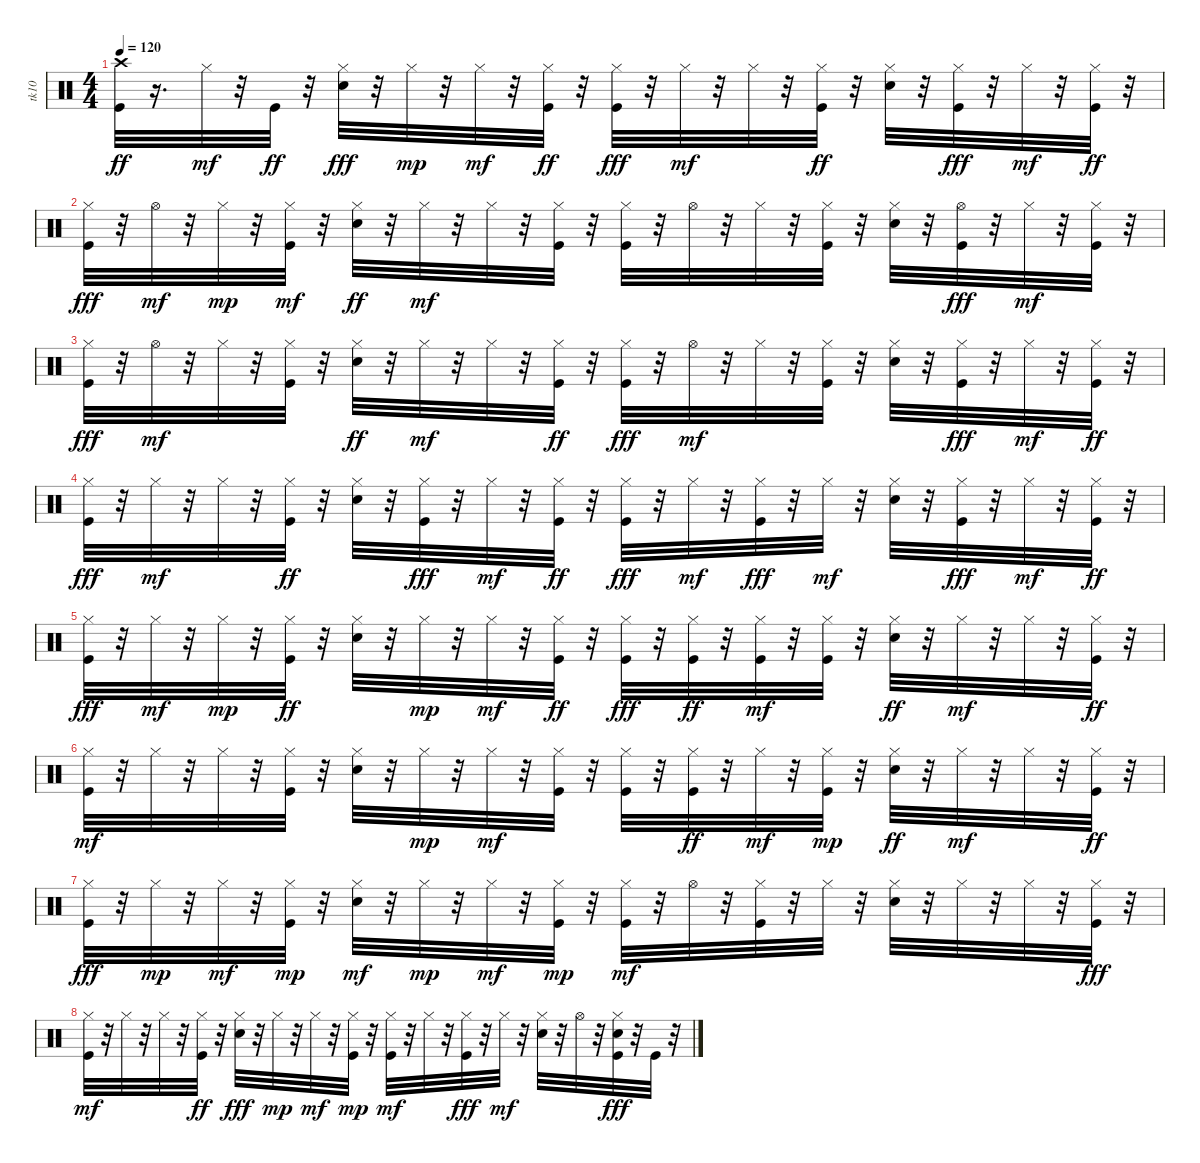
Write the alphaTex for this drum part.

\track ("tk10" "tk10") {instrument percussion}
\staff {score}
\articulation defaults
\ts (4 4)
\tempo 120
\clef neutral
\ks c
("Crash high (hit)" "Kick (hit)").32{dy ff} r.16{d} "Hi-Hat (closed)".32{dy mf} r.32 "Kick (hit)".32{dy ff} r.32 ("Hi-Hat (closed)" "Snare (hit) 2").32{dy fff} r.32 "Hi-Hat (closed)".32{dy mp} r.32 "Hi-Hat (closed)".32{dy mf} r.32 ("Hi-Hat (closed)" "Kick (hit)").32{dy ff} r.32 ("Hi-Hat (closed)" "Kick (hit)").32{dy fff} r.32 "Hi-Hat (closed)".32{dy mf} r.32 "Hi-Hat (closed)".32 r.32 ("Hi-Hat (closed)" "Kick (hit)").32{dy ff} r.32 ("Hi-Hat (closed)" "Snare (hit) 2").32 r.32 ("Hi-Hat (closed)" "Kick (hit)").32{dy fff} r.32 "Hi-Hat (closed)".32{dy mf} r.32 ("Hi-Hat (closed)" "Kick (hit)").32{dy ff} r.32 |
("Hi-Hat (closed)" "Kick (hit)").32{dy fff} r.32 "Hi-Hat (open)".32{dy mf} r.32 "Hi-Hat (closed)".32{dy mp} r.32 ("Kick (hit)" "Hi-Hat (closed)").32{dy mf} r.32 ("Hi-Hat (closed)" "Snare (hit) 2").32{dy ff} r.32 "Hi-Hat (closed)".32{dy mf} r.32 "Hi-Hat (closed)".32 r.32 ("Kick (hit)" "Hi-Hat (closed)").32 r.32 ("Kick (hit)" "Hi-Hat (closed)").32 r.32 "Hi-Hat (open)".32 r.32 "Hi-Hat (closed)".32 r.32 ("Kick (hit)" "Hi-Hat (closed)").32 r.32 ("Snare (hit) 2" "Hi-Hat (closed)").32 r.32 ("Hi-Hat (open)" "Kick (hit)").32{dy fff} r.32 "Hi-Hat (closed)".32{dy mf} r.32 ("Kick (hit)" "Hi-Hat (closed)").32 r.32 |
("Hi-Hat (closed)" "Kick (hit)").32{dy fff} r.32 "Hi-Hat (open)".32{dy mf} r.32 "Hi-Hat (closed)".32 r.32 ("Kick (hit)" "Hi-Hat (closed)").32 r.32 ("Hi-Hat (closed)" "Snare (hit) 2").32{dy ff} r.32 "Hi-Hat (closed)".32{dy mf} r.32 "Hi-Hat (closed)".32 r.32 ("Hi-Hat (closed)" "Kick (hit)").32{dy ff} r.32 ("Hi-Hat (closed)" "Kick (hit)").32{dy fff} r.32 "Hi-Hat (open)".32{dy mf} r.32 "Hi-Hat (closed)".32 r.32 ("Kick (hit)" "Hi-Hat (closed)").32 r.32 ("Snare (hit) 2" "Hi-Hat (closed)").32 r.32 ("Hi-Hat (closed)" "Kick (hit)").32{dy fff} r.32 "Hi-Hat (closed)".32{dy mf} r.32 ("Hi-Hat (closed)" "Kick (hit)").32{dy ff} r.32 |
("Hi-Hat (closed)" "Kick (hit)").32{dy fff} r.32 "Hi-Hat (closed)".32{dy mf} r.32 "Hi-Hat (closed)".32 r.32 ("Hi-Hat (closed)" "Kick (hit)").32{dy ff} r.32 ("Hi-Hat (closed)" "Snare (hit) 2").32 r.32 ("Hi-Hat (closed)" "Kick (hit)").32{dy fff} r.32 "Hi-Hat (closed)".32{dy mf} r.32 ("Hi-Hat (closed)" "Kick (hit)").32{dy ff} r.32 ("Hi-Hat (closed)" "Kick (hit)").32{dy fff} r.32 "Hi-Hat (closed)".32{dy mf} r.32 ("Hi-Hat (closed)" "Kick (hit)").32{dy fff} r.32 "Hi-Hat (closed)".32{dy mf} r.32 ("Snare (hit) 2" "Hi-Hat (closed)").32 r.32 ("Hi-Hat (closed)" "Kick (hit)").32{dy fff} r.32 "Hi-Hat (closed)".32{dy mf} r.32 ("Hi-Hat (closed)" "Kick (hit)").32{dy ff} r.32 |
("Hi-Hat (closed)" "Kick (hit)").32{dy fff} r.32 "Hi-Hat (closed)".32{dy mf} r.32 "Hi-Hat (closed)".32{dy mp} r.32 ("Hi-Hat (closed)" "Kick (hit)").32{dy ff} r.32 ("Hi-Hat (closed)" "Snare (hit) 2").32 r.32 "Hi-Hat (closed)".32{dy mp} r.32 "Hi-Hat (closed)".32{dy mf} r.32 ("Hi-Hat (closed)" "Kick (hit)").32{dy ff} r.32 ("Hi-Hat (closed)" "Kick (hit)").32{dy fff} r.32 ("Hi-Hat (closed)" "Kick (hit)").32{dy ff} r.32 ("Hi-Hat (closed)" "Kick (hit)").32{dy mf} r.32 ("Hi-Hat (closed)" "Kick (hit)").32 r.32 ("Hi-Hat (closed)" "Snare (hit) 2").32{dy ff} r.32 "Hi-Hat (closed)".32{dy mf} r.32 "Hi-Hat (closed)".32 r.32 ("Hi-Hat (closed)" "Kick (hit)").32{dy ff} r.32 |
("Kick (hit)" "Hi-Hat (closed)").32{dy mf} r.32 "Hi-Hat (closed)".32 r.32 "Hi-Hat (closed)".32 r.32 ("Kick (hit)" "Hi-Hat (closed)").32 r.32 ("Snare (hit) 2" "Hi-Hat (closed)").32 r.32 "Hi-Hat (closed)".32{dy mp} r.32 "Hi-Hat (closed)".32{dy mf} r.32 ("Kick (hit)" "Hi-Hat (closed)").32 r.32 ("Kick (hit)" "Hi-Hat (closed)").32 r.32 ("Hi-Hat (closed)" "Kick (hit)").32{dy ff} r.32 "Hi-Hat (closed)".32{dy mf} r.32 ("Kick (hit)" "Hi-Hat (closed)").32{dy mp} r.32 ("Hi-Hat (closed)" "Snare (hit) 2").32{dy ff} r.32 "Hi-Hat (closed)".32{dy mf} r.32 "Hi-Hat (closed)".32 r.32 ("Hi-Hat (closed)" "Kick (hit)").32{dy ff} r.32 |
("Hi-Hat (closed)" "Kick (hit)").32{dy fff} r.32 "Hi-Hat (closed)".32{dy mp} r.32 "Hi-Hat (closed)".32{dy mf} r.32 ("Kick (hit)" "Hi-Hat (closed)").32{dy mp} r.32 ("Snare (hit) 2" "Hi-Hat (closed)").32{dy mf} r.32 "Hi-Hat (closed)".32{dy mp} r.32 "Hi-Hat (closed)".32{dy mf} r.32 ("Kick (hit)" "Hi-Hat (closed)").32{dy mp} r.32 ("Kick (hit)" "Hi-Hat (closed)").32{dy mf} r.32 "Hi-Hat (open)".32 r.32 ("Kick (hit)" "Hi-Hat (closed)").32 r.32 "Hi-Hat (closed)".32 r.32 ("Snare (hit) 2" "Hi-Hat (closed)").32 r.32 "Hi-Hat (closed)".32 r.32 "Hi-Hat (closed)".32 r.32 ("Hi-Hat (closed)" "Kick (hit)").32{dy fff} r.32 |
("Kick (hit)" "Hi-Hat (closed)").32{dy mf} r.32 "Hi-Hat (closed)".32 r.32 "Hi-Hat (closed)".32 r.32 ("Hi-Hat (closed)" "Kick (hit)").32{dy ff} r.32 ("Hi-Hat (closed)" "Snare (hit) 2").32{dy fff} r.32 "Hi-Hat (closed)".32{dy mp} r.32 "Hi-Hat (closed)".32{dy mf} r.32 ("Kick (hit)" "Hi-Hat (closed)").32{dy mp} r.32 ("Kick (hit)" "Hi-Hat (closed)").32{dy mf} r.32 "Hi-Hat (closed)".32 r.32 ("Hi-Hat (closed)" "Kick (hit)").32{dy fff} r.32 "Hi-Hat (closed)".32{dy mf} r.32 ("Snare (hit) 2" "Hi-Hat (closed)").32 r.32 "Hi-Hat (open)".32 r.32 ("Kick (hit)" "Snare (hit) 2" "Hi-Hat (closed)").32{dy fff} r.32 "Kick (hit)".32 r.32
